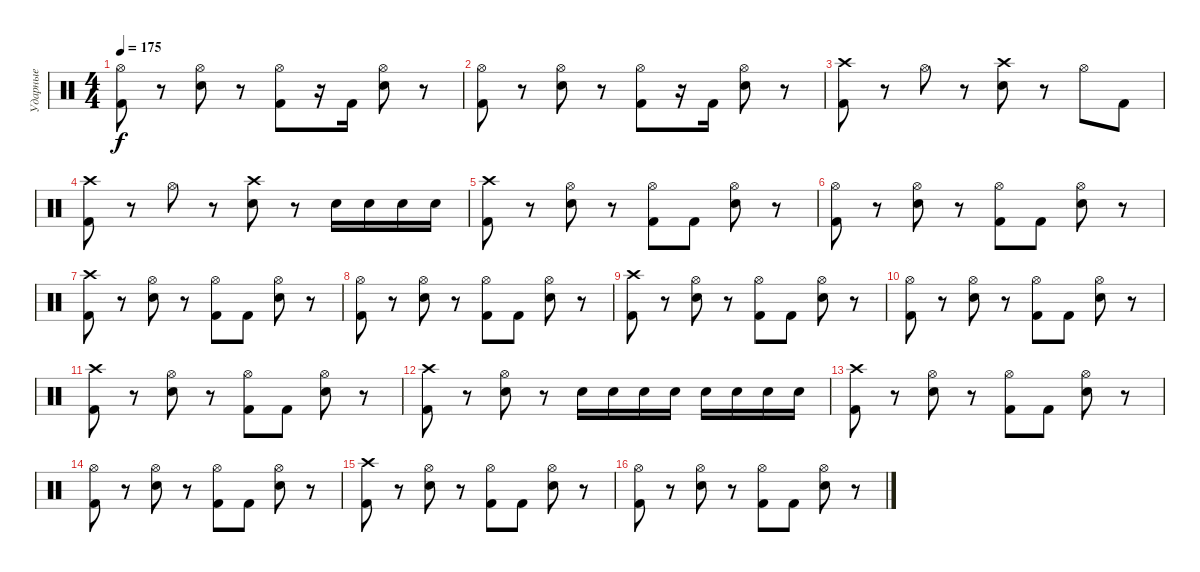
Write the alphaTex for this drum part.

\track ("Ударные" "Ударные") {instrument percussion}
\staff {score}
\articulation defaults
\ts (4 4)
\tempo 175
\clef neutral
\ks c
("Kick (hit) 2" "Hi-Hat (open)").8{dy f} r.8 ("Electric Snare (hit)" "Hi-Hat (open)").8 r.8 ("Kick (hit) 2" "Hi-Hat (open)").8 r.16 "Kick (hit) 2".16 ("Electric Snare (hit)" "Hi-Hat (open)").8 r.8 |
("Kick (hit) 2" "Hi-Hat (open)").8 r.8 ("Electric Snare (hit)" "Hi-Hat (open)").8 r.8 ("Kick (hit) 2" "Hi-Hat (open)").8 r.16 "Kick (hit) 2".16 ("Electric Snare (hit)" "Hi-Hat (open)").8 r.8 |
("Kick (hit) 2" "Crash high (hit)").8 r.8 "Hi-Hat (open)".8 r.8 ("Electric Snare (hit)" "Crash high (hit)").8 r.8 "Hi-Hat (open)".8 "Kick (hit) 2".8 |
("Kick (hit) 2" "Crash high (hit)").8 r.8 "Hi-Hat (open)".8 r.8 ("Electric Snare (hit)" "Crash high (hit)").8 r.8 "Electric Snare (hit)".16 "Electric Snare (hit)".16 "Electric Snare (hit)".16 "Electric Snare (hit)".16 |
("Kick (hit) 2" "Crash high (hit)").8 r.8 ("Electric Snare (hit)" "Hi-Hat (open)").8 r.8 ("Kick (hit) 2" "Hi-Hat (open)").8 "Kick (hit) 2".8 ("Electric Snare (hit)" "Hi-Hat (open)").8 r.8 |
("Kick (hit) 2" "Hi-Hat (open)").8 r.8 ("Electric Snare (hit)" "Hi-Hat (open)").8 r.8 ("Kick (hit) 2" "Hi-Hat (open)").8 "Kick (hit) 2".8 ("Electric Snare (hit)" "Hi-Hat (open)").8 r.8 |
("Kick (hit) 2" "Crash high (hit)").8 r.8 ("Electric Snare (hit)" "Hi-Hat (open)").8 r.8 ("Kick (hit) 2" "Hi-Hat (open)").8 "Kick (hit) 2".8 ("Electric Snare (hit)" "Hi-Hat (open)").8 r.8 |
("Kick (hit) 2" "Hi-Hat (open)").8 r.8 ("Electric Snare (hit)" "Hi-Hat (open)").8 r.8 ("Kick (hit) 2" "Hi-Hat (open)").8 "Kick (hit) 2".8 ("Electric Snare (hit)" "Hi-Hat (open)").8 r.8 |
("Kick (hit) 2" "Crash high (hit)").8 r.8 ("Electric Snare (hit)" "Hi-Hat (open)").8 r.8 ("Kick (hit) 2" "Hi-Hat (open)").8 "Kick (hit) 2".8 ("Electric Snare (hit)" "Hi-Hat (open)").8 r.8 |
("Kick (hit) 2" "Hi-Hat (open)").8 r.8 ("Electric Snare (hit)" "Hi-Hat (open)").8 r.8 ("Kick (hit) 2" "Hi-Hat (open)").8 "Kick (hit) 2".8 ("Electric Snare (hit)" "Hi-Hat (open)").8 r.8 |
("Kick (hit) 2" "Crash high (hit)").8 r.8 ("Electric Snare (hit)" "Hi-Hat (open)").8 r.8 ("Kick (hit) 2" "Hi-Hat (open)").8 "Kick (hit) 2".8 ("Electric Snare (hit)" "Hi-Hat (open)").8 r.8 |
("Kick (hit) 2" "Crash high (hit)").8 r.8 ("Electric Snare (hit)" "Hi-Hat (open)").8 r.8 "Electric Snare (hit)".16 "Electric Snare (hit)".16 "Electric Snare (hit)".16 "Electric Snare (hit)".16 "Electric Snare (hit)".16 "Electric Snare (hit)".16 "Electric Snare (hit)".16 "Electric Snare (hit)".16 |
("Kick (hit) 2" "Crash high (hit)").8 r.8 ("Electric Snare (hit)" "Hi-Hat (open)").8 r.8 ("Kick (hit) 2" "Hi-Hat (open)").8 "Kick (hit) 2".8 ("Electric Snare (hit)" "Hi-Hat (open)").8 r.8 |
("Kick (hit) 2" "Hi-Hat (open)").8 r.8 ("Electric Snare (hit)" "Hi-Hat (open)").8 r.8 ("Kick (hit) 2" "Hi-Hat (open)").8 "Kick (hit) 2".8 ("Electric Snare (hit)" "Hi-Hat (open)").8 r.8 |
("Kick (hit) 2" "Crash high (hit)").8 r.8 ("Electric Snare (hit)" "Hi-Hat (open)").8 r.8 ("Kick (hit) 2" "Hi-Hat (open)").8 "Kick (hit) 2".8 ("Electric Snare (hit)" "Hi-Hat (open)").8 r.8 |
("Kick (hit) 2" "Hi-Hat (open)").8 r.8 ("Electric Snare (hit)" "Hi-Hat (open)").8 r.8 ("Kick (hit) 2" "Hi-Hat (open)").8 "Kick (hit) 2".8 ("Electric Snare (hit)" "Hi-Hat (open)").8 r.8
